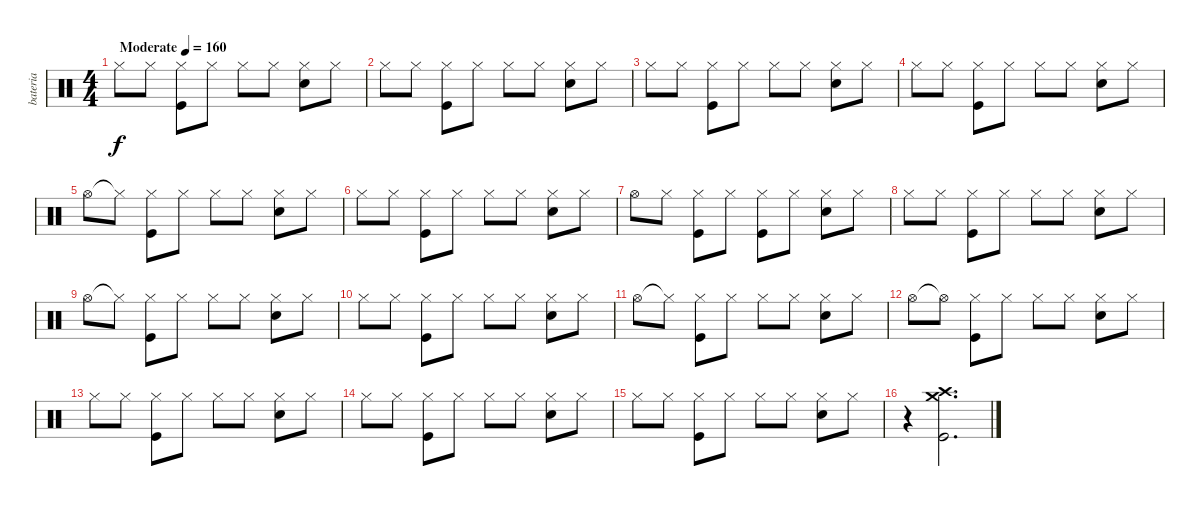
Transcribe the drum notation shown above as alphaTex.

\track ("bateria" "bateria") {instrument percussion}
\staff {score}
\articulation defaults
\ts (4 4)
\tempo (160 "Moderate")
\clef neutral
\ks c "Hi-Hat (closed)".8{dy f} "Hi-Hat (closed)".8
("Hi-Hat (closed)" "Kick (hit)").8 "Hi-Hat (closed)".8 "Hi-Hat (closed)".8 "Hi-Hat (closed)".8 ("Hi-Hat (closed)" "Snare (hit) 2").8 "Hi-Hat (closed)".8 |
"Hi-Hat (closed)".8 "Hi-Hat (closed)".8 ("Hi-Hat (closed)" "Kick (hit)").8 "Hi-Hat (closed)".8 "Hi-Hat (closed)".8 "Hi-Hat (closed)".8 ("Hi-Hat (closed)" "Snare (hit) 2").8 "Hi-Hat (closed)".8 |
"Hi-Hat (closed)".8 "Hi-Hat (closed)".8 ("Hi-Hat (closed)" "Kick (hit)").8 "Hi-Hat (closed)".8 "Hi-Hat (closed)".8 "Hi-Hat (closed)".8 ("Hi-Hat (closed)" "Snare (hit) 2").8 "Hi-Hat (closed)".8 |
"Hi-Hat (closed)".8 "Hi-Hat (closed)".8 ("Hi-Hat (closed)" "Kick (hit)").8 "Hi-Hat (closed)".8 "Hi-Hat (closed)".8 "Hi-Hat (closed)".8 ("Hi-Hat (closed)" "Snare (hit) 2").8 "Hi-Hat (closed)".8 |
"Hi-Hat (open)".8 "Hi-Hat (closed)"{t}.8 ("Hi-Hat (closed)" "Kick (hit)").8 "Hi-Hat (closed)".8 "Hi-Hat (closed)".8 "Hi-Hat (closed)".8 ("Hi-Hat (closed)" "Snare (hit) 2").8 "Hi-Hat (closed)".8 |
"Hi-Hat (closed)".8 "Hi-Hat (closed)".8 ("Hi-Hat (closed)" "Kick (hit)").8 "Hi-Hat (closed)".8 "Hi-Hat (closed)".8 "Hi-Hat (closed)".8 ("Hi-Hat (closed)" "Snare (hit) 2").8 "Hi-Hat (closed)".8 |
"Hi-Hat (open)".8 "Hi-Hat (closed)".8 ("Hi-Hat (closed)" "Kick (hit)").8 "Hi-Hat (closed)".8 ("Hi-Hat (closed)" "Kick (hit)").8 "Hi-Hat (closed)".8 ("Hi-Hat (closed)" "Snare (hit) 2").8 "Hi-Hat (closed)".8 |
"Hi-Hat (closed)".8 "Hi-Hat (closed)".8 ("Hi-Hat (closed)" "Kick (hit)").8 "Hi-Hat (closed)".8 "Hi-Hat (closed)".8 "Hi-Hat (closed)".8 ("Hi-Hat (closed)" "Snare (hit) 2").8 "Hi-Hat (closed)".8 |
"Hi-Hat (open)".8 "Hi-Hat (closed)"{t}.8 ("Hi-Hat (closed)" "Kick (hit)").8 "Hi-Hat (closed)".8 "Hi-Hat (closed)".8 "Hi-Hat (closed)".8 ("Hi-Hat (closed)" "Snare (hit) 2").8 "Hi-Hat (closed)".8 |
"Hi-Hat (closed)".8 "Hi-Hat (closed)".8 ("Hi-Hat (closed)" "Kick (hit)").8 "Hi-Hat (closed)".8 "Hi-Hat (closed)".8 "Hi-Hat (closed)".8 ("Hi-Hat (closed)" "Snare (hit) 2").8 "Hi-Hat (closed)".8 |
"Hi-Hat (open)".8 "Hi-Hat (closed)"{t}.8 ("Hi-Hat (closed)" "Kick (hit)").8 "Hi-Hat (closed)".8 "Hi-Hat (closed)".8 "Hi-Hat (closed)".8 ("Hi-Hat (closed)" "Snare (hit) 2").8 "Hi-Hat (closed)".8 |
"Hi-Hat (open)".8 "Hi-Hat (open)"{t}.8 ("Hi-Hat (closed)" "Kick (hit)").8 "Hi-Hat (closed)".8 "Hi-Hat (closed)".8 "Hi-Hat (closed)".8 ("Hi-Hat (closed)" "Snare (hit) 2").8 "Hi-Hat (closed)".8 |
"Hi-Hat (closed)".8 "Hi-Hat (closed)".8 ("Hi-Hat (closed)" "Kick (hit)").8 "Hi-Hat (closed)".8 "Hi-Hat (closed)".8 "Hi-Hat (closed)".8 ("Hi-Hat (closed)" "Snare (hit) 2").8 "Hi-Hat (closed)".8 |
"Hi-Hat (closed)".8 "Hi-Hat (closed)".8 ("Hi-Hat (closed)" "Kick (hit)").8 "Hi-Hat (closed)".8 "Hi-Hat (closed)".8 "Hi-Hat (closed)".8 ("Hi-Hat (closed)" "Snare (hit) 2").8 "Hi-Hat (closed)".8 |
"Hi-Hat (closed)".8 "Hi-Hat (closed)".8 ("Hi-Hat (closed)" "Kick (hit)").8 "Hi-Hat (closed)".8 "Hi-Hat (closed)".8 "Hi-Hat (closed)".8 ("Hi-Hat (closed)" "Snare (hit) 2").8 "Hi-Hat (closed)".8 |
r.4 ("Crash medium (hit)" "Crash high (hit)" "Kick (hit)").2{d}
